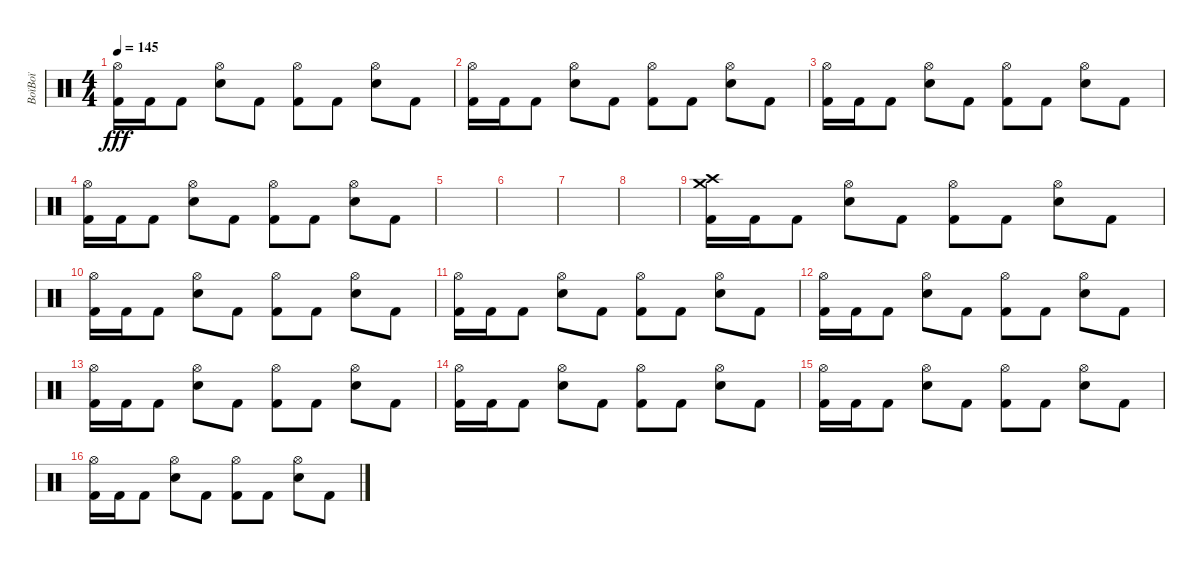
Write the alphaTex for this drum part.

\track ("BoïBoï" "BoïBoï") {instrument percussion}
\staff {score}
\articulation defaults
\ts (4 4)
\tempo 145
\clef neutral
\ks c
("Hi-Hat (open)" "Kick (hit) 2").16{dy fff} "Kick (hit) 2".16 "Kick (hit) 2".8 ("Hi-Hat (open)" "Electric Snare (hit)").8 "Kick (hit) 2".8 ("Hi-Hat (open)" "Kick (hit) 2").8 "Kick (hit) 2".8 ("Hi-Hat (open)" "Electric Snare (hit)").8 "Kick (hit) 2".8 |
("Hi-Hat (open)" "Kick (hit) 2").16 "Kick (hit) 2".16 "Kick (hit) 2".8 ("Hi-Hat (open)" "Electric Snare (hit)").8 "Kick (hit) 2".8 ("Hi-Hat (open)" "Kick (hit) 2").8 "Kick (hit) 2".8 ("Hi-Hat (open)" "Electric Snare (hit)").8 "Kick (hit) 2".8 |
("Hi-Hat (open)" "Kick (hit) 2").16 "Kick (hit) 2".16 "Kick (hit) 2".8 ("Hi-Hat (open)" "Electric Snare (hit)").8 "Kick (hit) 2".8 ("Hi-Hat (open)" "Kick (hit) 2").8 "Kick (hit) 2".8 ("Hi-Hat (open)" "Electric Snare (hit)").8 "Kick (hit) 2".8 |
("Hi-Hat (open)" "Kick (hit) 2").16 "Kick (hit) 2".16 "Kick (hit) 2".8 ("Hi-Hat (open)" "Electric Snare (hit)").8 "Kick (hit) 2".8 ("Hi-Hat (open)" "Kick (hit) 2").8 "Kick (hit) 2".8 ("Hi-Hat (open)" "Electric Snare (hit)").8 "Kick (hit) 2".8 |
|
|
|
|
("Crash medium (hit)" "Crash high (hit)" "Kick (hit) 2").16 "Kick (hit) 2".16 "Kick (hit) 2".8 ("Hi-Hat (open)" "Electric Snare (hit)").8 "Kick (hit) 2".8 ("Hi-Hat (open)" "Kick (hit) 2").8 "Kick (hit) 2".8 ("Hi-Hat (open)" "Electric Snare (hit)").8 "Kick (hit) 2".8 |
("Hi-Hat (open)" "Kick (hit) 2").16 "Kick (hit) 2".16 "Kick (hit) 2".8 ("Hi-Hat (open)" "Electric Snare (hit)").8 "Kick (hit) 2".8 ("Hi-Hat (open)" "Kick (hit) 2").8 "Kick (hit) 2".8 ("Hi-Hat (open)" "Electric Snare (hit)").8 "Kick (hit) 2".8 |
("Hi-Hat (open)" "Kick (hit) 2").16 "Kick (hit) 2".16 "Kick (hit) 2".8 ("Hi-Hat (open)" "Electric Snare (hit)").8 "Kick (hit) 2".8 ("Hi-Hat (open)" "Kick (hit) 2").8 "Kick (hit) 2".8 ("Hi-Hat (open)" "Electric Snare (hit)").8 "Kick (hit) 2".8 |
("Hi-Hat (open)" "Kick (hit) 2").16 "Kick (hit) 2".16 "Kick (hit) 2".8 ("Hi-Hat (open)" "Electric Snare (hit)").8 "Kick (hit) 2".8 ("Hi-Hat (open)" "Kick (hit) 2").8 "Kick (hit) 2".8 ("Hi-Hat (open)" "Electric Snare (hit)").8 "Kick (hit) 2".8 |
("Hi-Hat (open)" "Kick (hit) 2").16 "Kick (hit) 2".16 "Kick (hit) 2".8 ("Hi-Hat (open)" "Electric Snare (hit)").8 "Kick (hit) 2".8 ("Hi-Hat (open)" "Kick (hit) 2").8 "Kick (hit) 2".8 ("Hi-Hat (open)" "Electric Snare (hit)").8 "Kick (hit) 2".8 |
("Hi-Hat (open)" "Kick (hit) 2").16 "Kick (hit) 2".16 "Kick (hit) 2".8 ("Hi-Hat (open)" "Electric Snare (hit)").8 "Kick (hit) 2".8 ("Hi-Hat (open)" "Kick (hit) 2").8 "Kick (hit) 2".8 ("Hi-Hat (open)" "Electric Snare (hit)").8 "Kick (hit) 2".8 |
("Hi-Hat (open)" "Kick (hit) 2").16 "Kick (hit) 2".16 "Kick (hit) 2".8 ("Hi-Hat (open)" "Electric Snare (hit)").8 "Kick (hit) 2".8 ("Hi-Hat (open)" "Kick (hit) 2").8 "Kick (hit) 2".8 ("Hi-Hat (open)" "Electric Snare (hit)").8 "Kick (hit) 2".8 |
("Hi-Hat (open)" "Kick (hit) 2").16 "Kick (hit) 2".16 "Kick (hit) 2".8 ("Hi-Hat (open)" "Electric Snare (hit)").8 "Kick (hit) 2".8 ("Hi-Hat (open)" "Kick (hit) 2").8 "Kick (hit) 2".8 ("Hi-Hat (open)" "Electric Snare (hit)").8 "Kick (hit) 2".8
